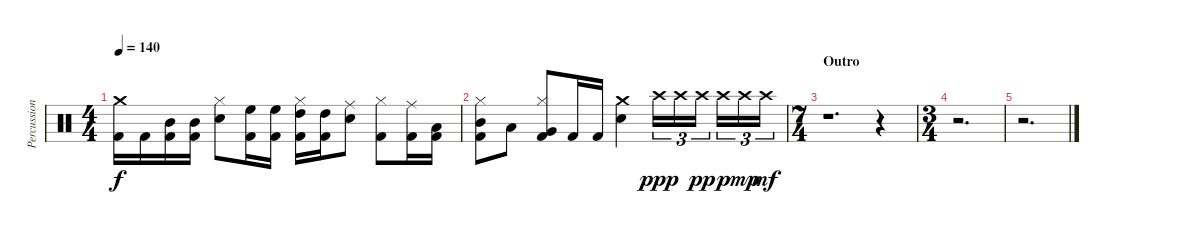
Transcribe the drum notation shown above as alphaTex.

\track ("Percussion" "Percussion") {instrument percussion}
\staff {score}
\articulation defaults
\ts (4 4)
\tempo 140
\clef neutral
\ks c
("Crash medium (hit)" "Kick (hit) 2").16{dy f} "Kick (hit) 2".16 ("Mid Tom (hit)" "Kick (hit) 2").16 ("Mid Tom (hit)" "Kick (hit) 2").16 ("Hi-Hat (closed)" "Electric Snare (hit)").8 ("High Floor Tom (hit)" "Kick (hit) 2").16 ("High Floor Tom (hit)" "Kick (hit) 2").16 ("Hi-Hat (closed)" "High Tom (hit)" "Kick (hit) 2").16 ("High Tom (hit)" "Kick (hit) 2").16 ("Ride (middle)" "Electric Snare (hit)").8 ("Hi-Hat (closed)" "Kick (hit) 2").8 ("Ride (middle)" "Kick (hit) 2").16 ("Low Tom (hit)" "Kick (hit) 2").16 |
("Hi-Hat (closed)" "Mid Tom (hit)" "Kick (hit) 2").8 "Low Tom (hit)".8 ("Hi-Hat (closed)" "Very Low Tom (hit)" "Kick (hit) 2").8 "Kick (hit) 2".16 "Kick (hit) 2".16 ("Crash medium (hit)" "Electric Snare (hit)").4 "Crash high (hit)".16{tu (3 2) dy ppp} "Crash high (hit)".16{tu (3 2)} "Crash high (hit)".16{tu (3 2) dy pp} "Crash high (hit)".16{tu (3 2) dy p} "Crash high (hit)".16{tu (3 2) dy mp} "Crash high (hit)".16{tu (3 2) dy mf} |
\ts (7 4)
\section ("" "Outro")
r.1{d} r.4 |
\ts (3 4)
r.2{d} |
r.2{d}
